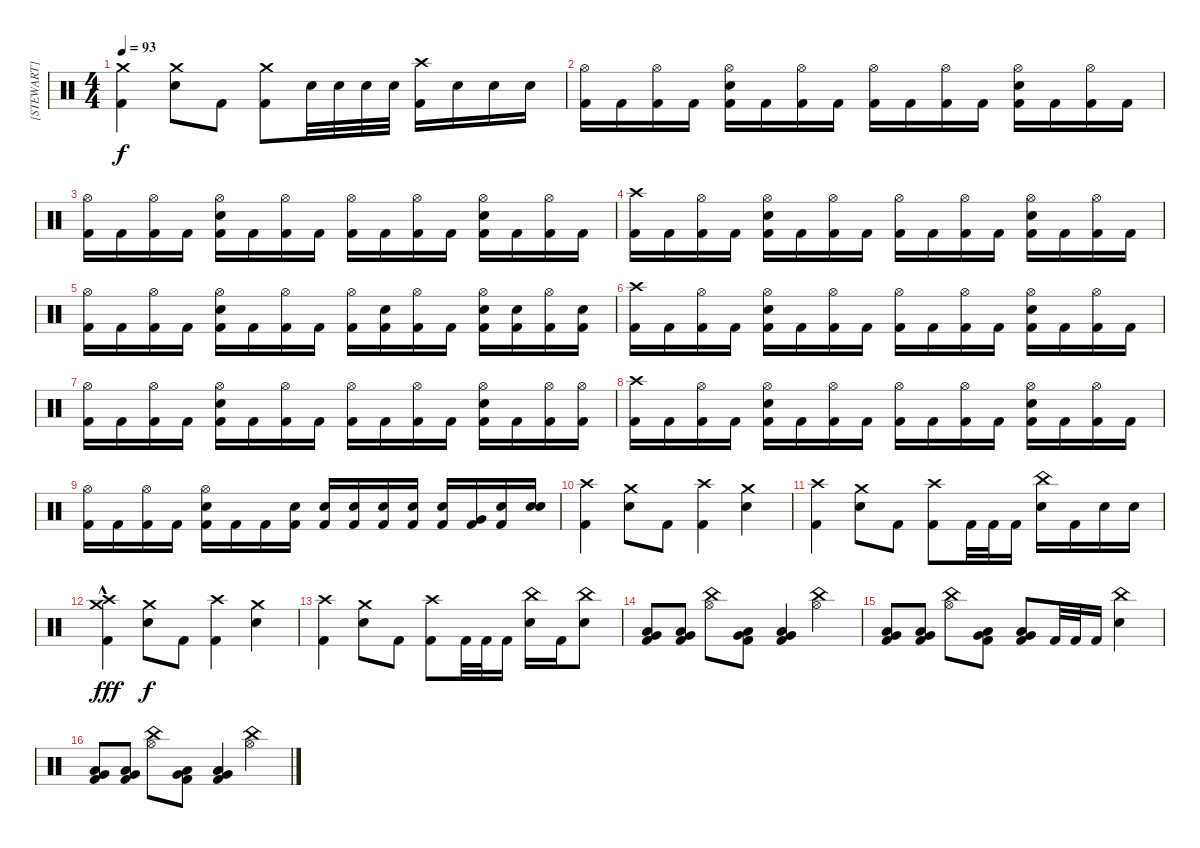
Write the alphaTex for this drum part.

\track ("[STEWART]" "[STEWART]") {instrument percussion}
\staff
\articulation defaults
\ts (4 4)
\tempo 93
\clef neutral
\ks c
("Crash medium (hit)" "Kick (hit) 2").4{dy f} ("Crash medium (hit)" "Snare (hit) 2").8 "Kick (hit) 2".8 ("Crash medium (hit)" "Kick (hit) 2").8 "Snare (hit) 2".32 "Snare (hit) 2".32 "Snare (hit) 2".32 "Snare (hit) 2".32 ("Crash high (hit)" "Kick (hit) 2").16 "Snare (hit) 2".16 "Snare (hit) 2".16 "Snare (hit) 2".16 |
("Hi-Hat (open)" "Kick (hit) 2").16 "Kick (hit) 2".16 ("Hi-Hat (open)" "Kick (hit) 2").16 "Kick (hit) 2".16 ("Hi-Hat (open)" "Snare (hit) 2" "Kick (hit) 2").16 "Kick (hit) 2".16 ("Hi-Hat (open)" "Kick (hit) 2").16 "Kick (hit) 2".16 ("Hi-Hat (open)" "Kick (hit) 2").16 "Kick (hit) 2".16 ("Hi-Hat (open)" "Kick (hit) 2").16 "Kick (hit) 2".16 ("Hi-Hat (open)" "Snare (hit) 2" "Kick (hit) 2").16 "Kick (hit) 2".16 ("Hi-Hat (open)" "Kick (hit) 2").16 "Kick (hit) 2".16 |
("Hi-Hat (open)" "Kick (hit) 2").16 "Kick (hit) 2".16 ("Hi-Hat (open)" "Kick (hit) 2").16 "Kick (hit) 2".16 ("Hi-Hat (open)" "Snare (hit) 2" "Kick (hit) 2").16 "Kick (hit) 2".16 ("Hi-Hat (open)" "Kick (hit) 2").16 "Kick (hit) 2".16 ("Hi-Hat (open)" "Kick (hit) 2").16 "Kick (hit) 2".16 ("Hi-Hat (open)" "Kick (hit) 2").16 "Kick (hit) 2".16 ("Hi-Hat (open)" "Snare (hit) 2" "Kick (hit) 2").16 "Kick (hit) 2".16 ("Hi-Hat (open)" "Kick (hit) 2").16 "Kick (hit) 2".16 |
("Crash high (hit)" "Kick (hit) 2").16 "Kick (hit) 2".16 ("Hi-Hat (open)" "Kick (hit) 2").16 "Kick (hit) 2".16 ("Hi-Hat (open)" "Snare (hit) 2" "Kick (hit) 2").16 "Kick (hit) 2".16 ("Hi-Hat (open)" "Kick (hit) 2").16 "Kick (hit) 2".16 ("Hi-Hat (open)" "Kick (hit) 2").16 "Kick (hit) 2".16 ("Hi-Hat (open)" "Kick (hit) 2").16 "Kick (hit) 2".16 ("Hi-Hat (open)" "Snare (hit) 2" "Kick (hit) 2").16 "Kick (hit) 2".16 ("Hi-Hat (open)" "Kick (hit) 2").16 "Kick (hit) 2".16 |
("Hi-Hat (open)" "Kick (hit) 2").16 "Kick (hit) 2".16 ("Hi-Hat (open)" "Kick (hit) 2").16 "Kick (hit) 2".16 ("Hi-Hat (open)" "Snare (hit) 2" "Kick (hit) 2").16 "Kick (hit) 2".16 ("Hi-Hat (open)" "Kick (hit) 2").16 "Kick (hit) 2".16 ("Hi-Hat (open)" "Kick (hit) 2").16 ("Snare (hit) 2" "Kick (hit) 2").16 ("Hi-Hat (open)" "Kick (hit) 2").16 "Kick (hit) 2".16 ("Hi-Hat (open)" "Snare (hit) 2" "Kick (hit) 2").16 ("Snare (hit) 2" "Kick (hit) 2").16 ("Hi-Hat (open)" "Kick (hit) 2").16 ("Snare (hit) 2" "Kick (hit) 2").16 |
("Crash high (hit)" "Kick (hit) 2").16 "Kick (hit) 2".16 ("Hi-Hat (open)" "Kick (hit) 2").16 "Kick (hit) 2".16 ("Hi-Hat (open)" "Snare (hit) 2" "Kick (hit) 2").16 "Kick (hit) 2".16 ("Hi-Hat (open)" "Kick (hit) 2").16 "Kick (hit) 2".16 ("Hi-Hat (open)" "Kick (hit) 2").16 "Kick (hit) 2".16 ("Hi-Hat (open)" "Kick (hit) 2").16 "Kick (hit) 2".16 ("Hi-Hat (open)" "Snare (hit) 2" "Kick (hit) 2").16 "Kick (hit) 2".16 ("Hi-Hat (open)" "Kick (hit) 2").16 "Kick (hit) 2".16 |
("Hi-Hat (open)" "Kick (hit) 2").16 "Kick (hit) 2".16 ("Hi-Hat (open)" "Kick (hit) 2").16 "Kick (hit) 2".16 ("Hi-Hat (open)" "Snare (hit) 2" "Kick (hit) 2").16 "Kick (hit) 2".16 ("Hi-Hat (open)" "Kick (hit) 2").16 "Kick (hit) 2".16 ("Hi-Hat (open)" "Kick (hit) 2").16 "Kick (hit) 2".16 ("Hi-Hat (open)" "Kick (hit) 2").16 "Kick (hit) 2".16 ("Hi-Hat (open)" "Snare (hit) 2" "Kick (hit) 2").16 "Kick (hit) 2".16 ("Hi-Hat (open)" "Kick (hit) 2").16 ("Hi-Hat (open)" "Kick (hit) 2").16 |
("Crash high (hit)" "Kick (hit) 2").16 "Kick (hit) 2".16 ("Hi-Hat (open)" "Kick (hit) 2").16 "Kick (hit) 2".16 ("Hi-Hat (open)" "Snare (hit) 2" "Kick (hit) 2").16 "Kick (hit) 2".16 ("Hi-Hat (open)" "Kick (hit) 2").16 "Kick (hit) 2".16 ("Hi-Hat (open)" "Kick (hit) 2").16 "Kick (hit) 2".16 ("Hi-Hat (open)" "Kick (hit) 2").16 "Kick (hit) 2".16 ("Hi-Hat (open)" "Snare (hit) 2" "Kick (hit) 2").16 "Kick (hit) 2".16 ("Hi-Hat (open)" "Kick (hit) 2").16 "Kick (hit) 2".16 |
("Hi-Hat (open)" "Kick (hit) 2").16 "Kick (hit) 2".16 ("Hi-Hat (open)" "Kick (hit) 2").16 "Kick (hit) 2".16 ("Hi-Hat (open)" "Snare (hit) 2" "Kick (hit) 2").16 "Kick (hit) 2".16 "Kick (hit) 2".16 ("Snare (hit) 2" "Kick (hit) 2").16 ("Snare (hit) 2" "Kick (hit) 2").16 ("Snare (hit) 2" "Kick (hit) 2").16 ("Snare (hit) 2" "Kick (hit) 2").16 ("Snare (hit) 2" "Kick (hit) 2").16 ("Snare (hit) 2" "Kick (hit) 2").16 ("Very Low Tom (hit)" "Kick (hit) 2").16 ("Snare (hit) 2" "Kick (hit) 2").16 ("Snare (hit) 2" "Snare (hit) 2").16 |
("Crash high (hit)" "Kick (hit) 2").4 ("Crash medium (hit)" "Snare (hit) 2").8 "Kick (hit) 2".8 ("Crash high (hit)" "Kick (hit) 2").4 ("Crash medium (hit)" "Snare (hit) 2").4 |
("Crash high (hit)" "Kick (hit) 2").4 ("Crash medium (hit)" "Snare (hit) 2").8 "Kick (hit) 2".8 ("Crash high (hit)" "Kick (hit) 2").8 "Kick (hit) 2".32 "Kick (hit) 2".32 "Kick (hit) 2".16 ("China (hit)" "Snare (hit) 2").16 "Kick (hit) 2".16 "Snare (hit) 2".16 "Snare (hit) 2".16 |
("Crash high (hit)" "Crash medium (hit)" "Kick (hit) 2"{hac}).4{dy fff} ("Crash medium (hit)" "Snare (hit) 2").8{dy f} "Kick (hit) 2".8 ("Crash high (hit)" "Kick (hit) 2").4 ("Crash medium (hit)" "Snare (hit) 2").4 |
("Crash high (hit)" "Kick (hit) 2").4 ("Crash medium (hit)" "Snare (hit) 2").8 "Kick (hit) 2".8 ("Crash high (hit)" "Kick (hit) 2").8 "Kick (hit) 2".32 "Kick (hit) 2".32 "Kick (hit) 2".16 ("China (hit)" "Snare (hit) 2").16 "Kick (hit) 2".16 ("China (hit)" "Snare (hit) 2").8 |
("Very Low Tom (hit)" "Low Tom (hit)" "Kick (hit) 2").8 ("Very Low Tom (hit)" "Low Tom (hit)" "Kick (hit) 2").8 ("Hi-Hat (open)" "China (hit)").8 ("Very Low Tom (hit)" "Low Tom (hit)" "Kick (hit) 2").8 ("Very Low Tom (hit)" "Low Tom (hit)" "Kick (hit) 2").4 ("Hi-Hat (open)" "China (hit)").4 |
("Very Low Tom (hit)" "Low Tom (hit)" "Kick (hit) 2").8 ("Very Low Tom (hit)" "Low Tom (hit)" "Kick (hit) 2").8 ("Hi-Hat (open)" "China (hit)").8 ("Very Low Tom (hit)" "Low Tom (hit)" "Kick (hit) 2").8 ("Very Low Tom (hit)" "Low Tom (hit)" "Kick (hit) 2").8 "Kick (hit) 2".32 "Kick (hit) 2".32 "Kick (hit) 2".16 ("China (hit)" "Snare (hit) 2").4 |
("Very Low Tom (hit)" "Low Tom (hit)" "Kick (hit) 2").8 ("Very Low Tom (hit)" "Low Tom (hit)" "Kick (hit) 2").8 ("Hi-Hat (open)" "China (hit)").8 ("Very Low Tom (hit)" "Low Tom (hit)" "Kick (hit) 2").8 ("Very Low Tom (hit)" "Low Tom (hit)" "Kick (hit) 2").4 ("Hi-Hat (open)" "China (hit)").4
